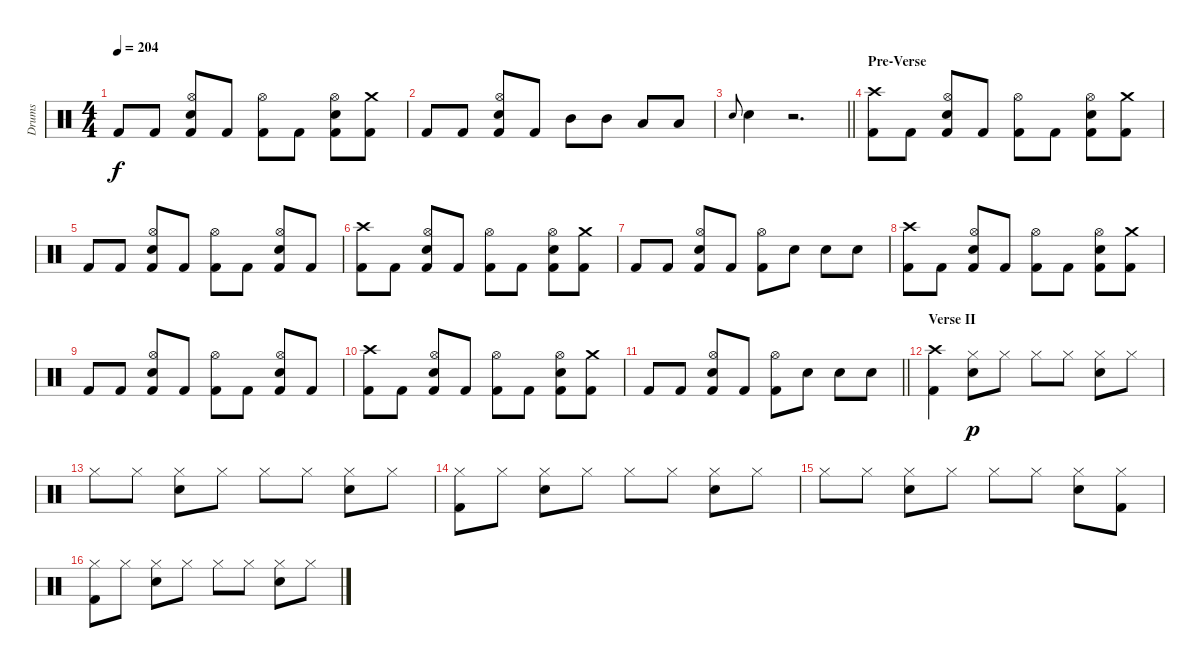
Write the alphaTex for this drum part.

\track ("Drums" "Drums") {instrument percussion}
\staff {score}
\articulation defaults
\ts (4 4)
\tempo 204
\clef neutral
\ks c "Kick (hit) 2".8{dy f} "Kick (hit) 2".8
("Hi-Hat (open)" "Snare (hit) 2" "Kick (hit) 2").8 "Kick (hit) 2".8 ("Hi-Hat (open)" "Kick (hit) 2").8 "Kick (hit) 2".8 ("Hi-Hat (open)" "Snare (hit) 2" "Kick (hit) 2").8 ("Crash medium (hit)" "Kick (hit) 2").8 |
"Kick (hit) 2".8 "Kick (hit) 2".8 ("Hi-Hat (open)" "Snare (hit) 2" "Kick (hit) 2").8 "Kick (hit) 2".8 "Mid Tom (hit)".8 "Mid Tom (hit)".8 "Low Tom (hit)".8 "Low Tom (hit)".8 |
\barLineRight lightlight "Snare (hit) 2".8{gr onbeat} "Snare (hit) 2".4
r.2{d} |
\section ("" "Pre-Verse")
("Crash high (hit)" "Kick (hit) 2").8 "Kick (hit) 2".8 ("Hi-Hat (open)" "Snare (hit) 2" "Kick (hit) 2").8 "Kick (hit) 2".8 ("Hi-Hat (open)" "Kick (hit) 2").8 "Kick (hit) 2".8 ("Hi-Hat (open)" "Snare (hit) 2" "Kick (hit) 2").8 ("Crash medium (hit)" "Kick (hit) 2").8 |
"Kick (hit) 2".8 "Kick (hit) 2".8 ("Hi-Hat (open)" "Snare (hit) 2" "Kick (hit) 2").8 "Kick (hit) 2".8 ("Hi-Hat (open)" "Kick (hit) 2").8 "Kick (hit) 2".8 ("Hi-Hat (open)" "Snare (hit) 2" "Kick (hit) 2").8 "Kick (hit) 2".8 |
("Crash high (hit)" "Kick (hit) 2").8 "Kick (hit) 2".8 ("Hi-Hat (open)" "Snare (hit) 2" "Kick (hit) 2").8 "Kick (hit) 2".8 ("Hi-Hat (open)" "Kick (hit) 2").8 "Kick (hit) 2".8 ("Hi-Hat (open)" "Snare (hit) 2" "Kick (hit) 2").8 ("Crash medium (hit)" "Kick (hit) 2").8 |
"Kick (hit) 2".8 "Kick (hit) 2".8 ("Hi-Hat (open)" "Snare (hit) 2" "Kick (hit) 2").8 "Kick (hit) 2".8 ("Hi-Hat (open)" "Kick (hit) 2").8 "Snare (hit) 2".8 "Snare (hit) 2".8 "Snare (hit) 2".8 |
("Crash high (hit)" "Kick (hit) 2").8 "Kick (hit) 2".8 ("Hi-Hat (open)" "Snare (hit) 2" "Kick (hit) 2").8 "Kick (hit) 2".8 ("Hi-Hat (open)" "Kick (hit) 2").8 "Kick (hit) 2".8 ("Hi-Hat (open)" "Snare (hit) 2" "Kick (hit) 2").8 ("Crash medium (hit)" "Kick (hit) 2").8 |
"Kick (hit) 2".8 "Kick (hit) 2".8 ("Hi-Hat (open)" "Snare (hit) 2" "Kick (hit) 2").8 "Kick (hit) 2".8 ("Hi-Hat (open)" "Kick (hit) 2").8 "Kick (hit) 2".8 ("Hi-Hat (open)" "Snare (hit) 2" "Kick (hit) 2").8 "Kick (hit) 2".8 |
("Crash high (hit)" "Kick (hit) 2").8 "Kick (hit) 2".8 ("Hi-Hat (open)" "Snare (hit) 2" "Kick (hit) 2").8 "Kick (hit) 2".8 ("Hi-Hat (open)" "Kick (hit) 2").8 "Kick (hit) 2".8 ("Hi-Hat (open)" "Snare (hit) 2" "Kick (hit) 2").8 ("Crash medium (hit)" "Kick (hit) 2").8 |
\barLineRight lightlight "Kick (hit) 2".8 "Kick (hit) 2".8
("Hi-Hat (open)" "Snare (hit) 2" "Kick (hit) 2").8 "Kick (hit) 2".8 ("Hi-Hat (open)" "Kick (hit) 2").8 "Snare (hit) 2".8 "Snare (hit) 2".8 "Snare (hit) 2".8 |
\section ("" "Verse II")
("Crash high (hit)" "Kick (hit) 2").4 ("Hi-Hat (closed)" "Snare (hit) 2").8{dy p} "Hi-Hat (closed)".8 "Hi-Hat (closed)".8 "Hi-Hat (closed)".8 ("Hi-Hat (closed)" "Snare (hit) 2").8 "Hi-Hat (closed)".8 |
"Hi-Hat (closed)".8 "Hi-Hat (closed)".8 ("Hi-Hat (closed)" "Snare (hit) 2").8 "Hi-Hat (closed)".8 "Hi-Hat (closed)".8 "Hi-Hat (closed)".8 ("Hi-Hat (closed)" "Snare (hit) 2").8 "Hi-Hat (closed)".8 |
("Hi-Hat (closed)" "Kick (hit) 2").8 "Hi-Hat (closed)".8 ("Hi-Hat (closed)" "Snare (hit) 2").8 "Hi-Hat (closed)".8 "Hi-Hat (closed)".8 "Hi-Hat (closed)".8 ("Hi-Hat (closed)" "Snare (hit) 2").8 "Hi-Hat (closed)".8 |
"Hi-Hat (closed)".8 "Hi-Hat (closed)".8 ("Hi-Hat (closed)" "Snare (hit) 2").8 "Hi-Hat (closed)".8 "Hi-Hat (closed)".8 "Hi-Hat (closed)".8 ("Hi-Hat (closed)" "Snare (hit) 2").8 ("Hi-Hat (closed)" "Kick (hit) 2").8 |
("Hi-Hat (closed)" "Kick (hit) 2").8 "Hi-Hat (closed)".8 ("Hi-Hat (closed)" "Snare (hit) 2").8 "Hi-Hat (closed)".8 "Hi-Hat (closed)".8 "Hi-Hat (closed)".8 ("Hi-Hat (closed)" "Snare (hit) 2").8 "Hi-Hat (closed)".8
